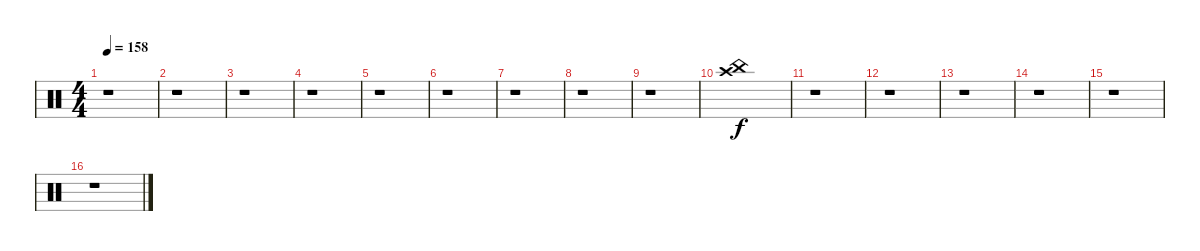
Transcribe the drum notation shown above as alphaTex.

\track "" {instrument percussion}
\staff {score}
\articulation defaults
\ts (4 4)
\tempo 158
\clef neutral
\ks c
r.1{dy f} |
r.1 |
r.1 |
r.1 |
r.1 |
r.1 |
r.1 |
r.1 |
r.1 |
("China (hit)" "Crash high (hit)").1 |
r.1 |
r.1 |
r.1 |
r.1 |
r.1 |
r.1
